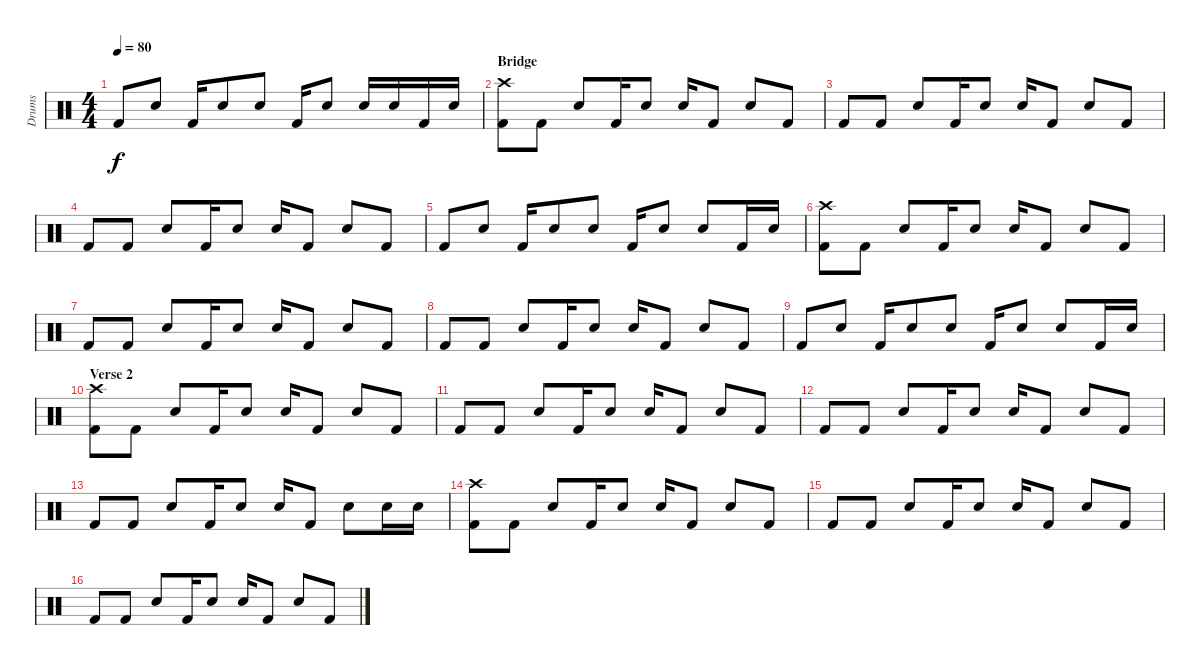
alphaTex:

\track ("Drums" "Drums") {instrument percussion}
\staff {score}
\articulation defaults
\ts (4 4)
\tempo 80
\clef neutral
\ks c "Kick (hit) 2".8{dy f} "Electric Snare (hit)".8 "Kick (hit) 2".16 "Electric Snare (hit)".8 "Electric Snare (hit)".8 "Kick (hit) 2".16 "Electric Snare (hit)".8 "Electric Snare (hit)".16 "Electric Snare (hit)".16 "Kick (hit) 2".16 "Electric Snare (hit)".16
|
\section ("" "Bridge")
("Crash high (hit)" "Kick (hit) 2").8 "Kick (hit) 2".8 "Electric Snare (hit)".8 "Kick (hit) 2".16 "Electric Snare (hit)".8 "Electric Snare (hit)".16 "Kick (hit) 2".8 "Electric Snare (hit)".8 "Kick (hit) 2".8 |
"Kick (hit) 2".8 "Kick (hit) 2".8 "Electric Snare (hit)".8 "Kick (hit) 2".16 "Electric Snare (hit)".8 "Electric Snare (hit)".16 "Kick (hit) 2".8 "Electric Snare (hit)".8 "Kick (hit) 2".8 |
"Kick (hit) 2".8 "Kick (hit) 2".8 "Electric Snare (hit)".8 "Kick (hit) 2".16 "Electric Snare (hit)".8 "Electric Snare (hit)".16 "Kick (hit) 2".8 "Electric Snare (hit)".8 "Kick (hit) 2".8 |
"Kick (hit) 2".8 "Electric Snare (hit)".8 "Kick (hit) 2".16 "Electric Snare (hit)".8 "Electric Snare (hit)".8 "Kick (hit) 2".16 "Electric Snare (hit)".8 "Electric Snare (hit)".8 "Kick (hit) 2".16 "Electric Snare (hit)".16 |
("Crash high (hit)" "Kick (hit) 2").8 "Kick (hit) 2".8 "Electric Snare (hit)".8 "Kick (hit) 2".16 "Electric Snare (hit)".8 "Electric Snare (hit)".16 "Kick (hit) 2".8 "Electric Snare (hit)".8 "Kick (hit) 2".8 |
"Kick (hit) 2".8 "Kick (hit) 2".8 "Electric Snare (hit)".8 "Kick (hit) 2".16 "Electric Snare (hit)".8 "Electric Snare (hit)".16 "Kick (hit) 2".8 "Electric Snare (hit)".8 "Kick (hit) 2".8 |
"Kick (hit) 2".8 "Kick (hit) 2".8 "Electric Snare (hit)".8 "Kick (hit) 2".16 "Electric Snare (hit)".8 "Electric Snare (hit)".16 "Kick (hit) 2".8 "Electric Snare (hit)".8 "Kick (hit) 2".8 |
"Kick (hit) 2".8 "Electric Snare (hit)".8 "Kick (hit) 2".16 "Electric Snare (hit)".8 "Electric Snare (hit)".8 "Kick (hit) 2".16 "Electric Snare (hit)".8 "Electric Snare (hit)".8 "Kick (hit) 2".16 "Electric Snare (hit)".16 |
\section ("" "Verse 2")
("Crash high (hit)" "Kick (hit) 2").8 "Kick (hit) 2".8 "Electric Snare (hit)".8 "Kick (hit) 2".16 "Electric Snare (hit)".8 "Electric Snare (hit)".16 "Kick (hit) 2".8 "Electric Snare (hit)".8 "Kick (hit) 2".8 |
"Kick (hit) 2".8 "Kick (hit) 2".8 "Electric Snare (hit)".8 "Kick (hit) 2".16 "Electric Snare (hit)".8 "Electric Snare (hit)".16 "Kick (hit) 2".8 "Electric Snare (hit)".8 "Kick (hit) 2".8 |
"Kick (hit) 2".8 "Kick (hit) 2".8 "Electric Snare (hit)".8 "Kick (hit) 2".16 "Electric Snare (hit)".8 "Electric Snare (hit)".16 "Kick (hit) 2".8 "Electric Snare (hit)".8 "Kick (hit) 2".8 |
"Kick (hit) 2".8 "Kick (hit) 2".8 "Electric Snare (hit)".8 "Kick (hit) 2".16 "Electric Snare (hit)".8 "Electric Snare (hit)".16 "Kick (hit) 2".8 "Electric Snare (hit)".8 "Electric Snare (hit)".16 "Electric Snare (hit)".16 |
("Crash high (hit)" "Kick (hit) 2").8 "Kick (hit) 2".8 "Electric Snare (hit)".8 "Kick (hit) 2".16 "Electric Snare (hit)".8 "Electric Snare (hit)".16 "Kick (hit) 2".8 "Electric Snare (hit)".8 "Kick (hit) 2".8 |
"Kick (hit) 2".8 "Kick (hit) 2".8 "Electric Snare (hit)".8 "Kick (hit) 2".16 "Electric Snare (hit)".8 "Electric Snare (hit)".16 "Kick (hit) 2".8 "Electric Snare (hit)".8 "Kick (hit) 2".8 |
"Kick (hit) 2".8 "Kick (hit) 2".8 "Electric Snare (hit)".8 "Kick (hit) 2".16 "Electric Snare (hit)".8 "Electric Snare (hit)".16 "Kick (hit) 2".8 "Electric Snare (hit)".8 "Kick (hit) 2".8
